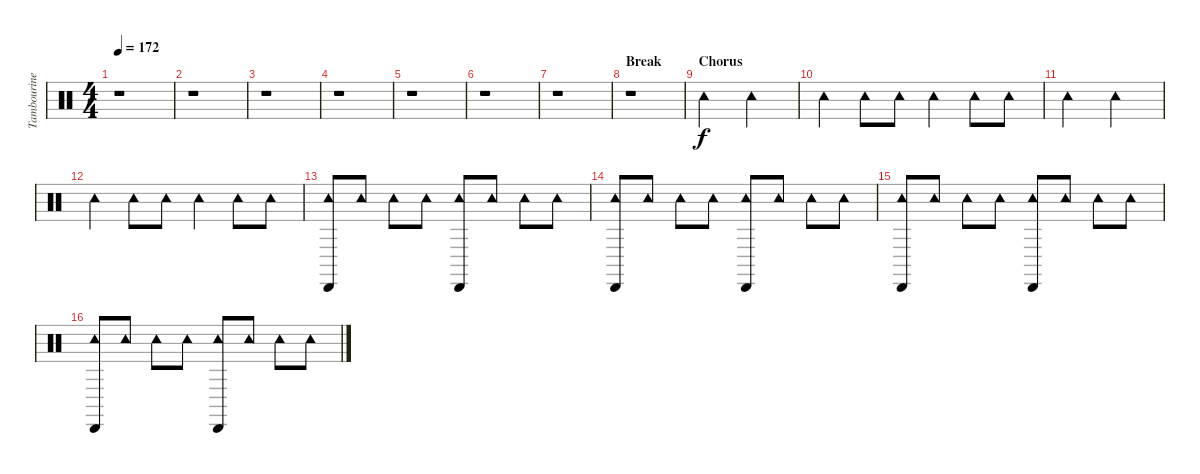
\track ("Tambourine" "Tambourine") {instrument percussion}
\staff {score}
\articulation defaults
\ts (4 4)
\tempo 172
\clef neutral
\ks c
r.1{dy f} |
r.1 |
r.1 |
r.1 |
r.1 |
r.1 |
r.1 |
\section ("" "Break")
r.1 |
\section ("" "Chorus")
"Tambourine (hit)".2 "Tambourine (hit)".2 |
"Tambourine (hit)".4 "Tambourine (hit)".8 "Tambourine (hit)".8 "Tambourine (hit)".4 "Tambourine (hit)".8 "Tambourine (hit)".8 |
"Tambourine (hit)".2 "Tambourine (hit)".2 |
"Tambourine (hit)".4 "Tambourine (hit)".8 "Tambourine (hit)".8 "Tambourine (hit)".4 "Tambourine (hit)".8 "Tambourine (hit)".8 |
("Tambourine (hit)" "Cabasa (hit)").8 "Tambourine (hit)".8 "Tambourine (hit)".8 "Tambourine (hit)".8 ("Tambourine (hit)" "Cabasa (hit)").8 "Tambourine (hit)".8 "Tambourine (hit)".8 "Tambourine (hit)".8 |
("Tambourine (hit)" "Cabasa (hit)").8 "Tambourine (hit)".8 "Tambourine (hit)".8 "Tambourine (hit)".8 ("Tambourine (hit)" "Cabasa (hit)").8 "Tambourine (hit)".8 "Tambourine (hit)".8 "Tambourine (hit)".8 |
("Tambourine (hit)" "Cabasa (hit)").8 "Tambourine (hit)".8 "Tambourine (hit)".8 "Tambourine (hit)".8 ("Tambourine (hit)" "Cabasa (hit)").8 "Tambourine (hit)".8 "Tambourine (hit)".8 "Tambourine (hit)".8 |
("Tambourine (hit)" "Cabasa (hit)").8 "Tambourine (hit)".8 "Tambourine (hit)".8 "Tambourine (hit)".8 ("Tambourine (hit)" "Cabasa (hit)").8 "Tambourine (hit)".8 "Tambourine (hit)".8 "Tambourine (hit)".8
